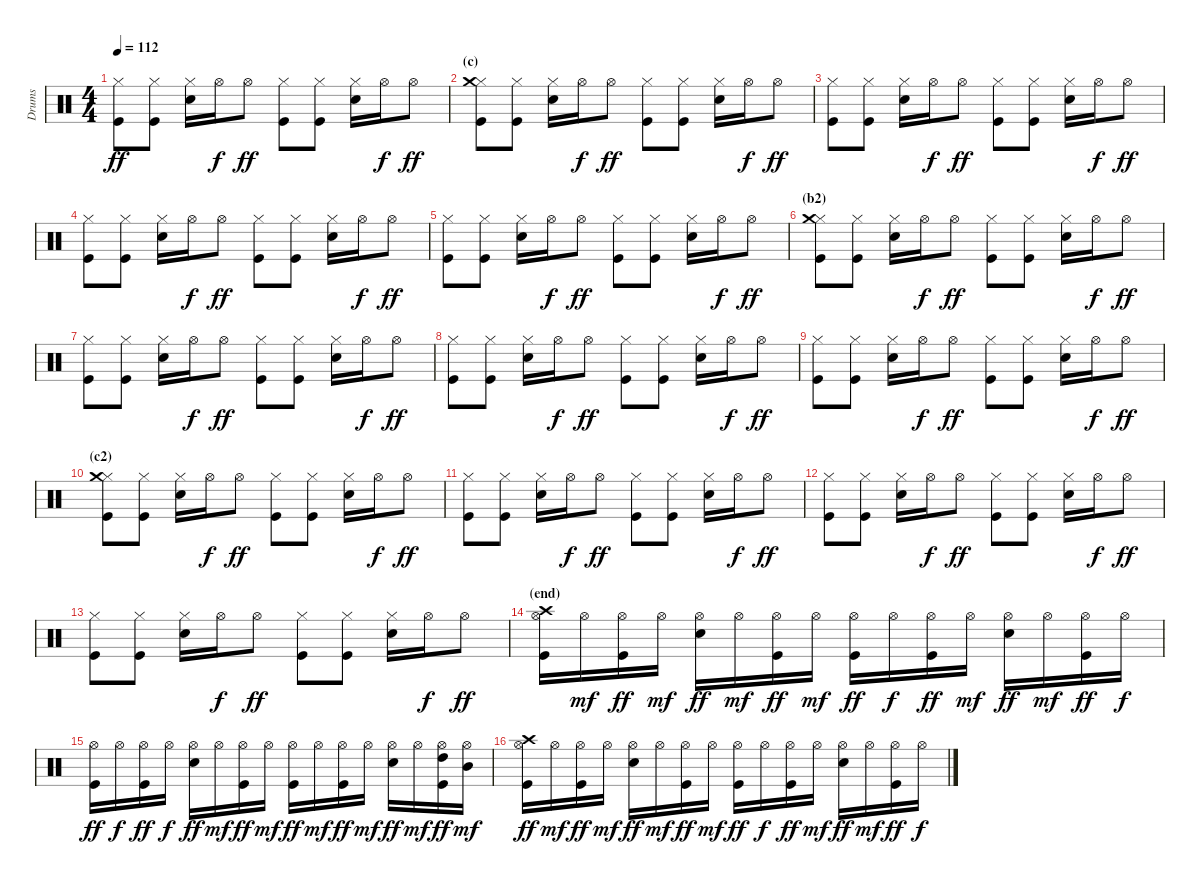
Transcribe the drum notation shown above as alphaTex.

\track ("Drums" "Drums") {instrument percussion}
\staff {score}
\articulation defaults
\ts (4 4)
\tempo 112
\clef neutral
\ks c
("Hi-Hat (closed)" "Kick (hit)").8{dy ff} ("Hi-Hat (closed)" "Kick (hit)").8 ("Hi-Hat (closed)" "Electric Snare (hit)").16 "Hi-Hat (open)".16{dy f} "Hi-Hat (open)".8{dy ff} ("Hi-Hat (closed)" "Kick (hit)").8 ("Hi-Hat (closed)" "Kick (hit)").8 ("Hi-Hat (closed)" "Electric Snare (hit)").16 "Hi-Hat (open)".16{dy f} "Hi-Hat (open)".8{dy ff} |
\section ("" "(c)")
("Hi-Hat (closed)" "Crash medium (hit)" "Kick (hit)").8 ("Hi-Hat (closed)" "Kick (hit)").8 ("Hi-Hat (closed)" "Electric Snare (hit)").16 "Hi-Hat (open)".16{dy f} "Hi-Hat (open)".8{dy ff} ("Hi-Hat (closed)" "Kick (hit)").8 ("Hi-Hat (closed)" "Kick (hit)").8 ("Hi-Hat (closed)" "Electric Snare (hit)").16 "Hi-Hat (open)".16{dy f} "Hi-Hat (open)".8{dy ff} |
("Hi-Hat (closed)" "Kick (hit)").8 ("Hi-Hat (closed)" "Kick (hit)").8 ("Hi-Hat (closed)" "Electric Snare (hit)").16 "Hi-Hat (open)".16{dy f} "Hi-Hat (open)".8{dy ff} ("Hi-Hat (closed)" "Kick (hit)").8 ("Hi-Hat (closed)" "Kick (hit)").8 ("Hi-Hat (closed)" "Electric Snare (hit)").16 "Hi-Hat (open)".16{dy f} "Hi-Hat (open)".8{dy ff} |
("Hi-Hat (closed)" "Kick (hit)").8 ("Hi-Hat (closed)" "Kick (hit)").8 ("Hi-Hat (closed)" "Electric Snare (hit)").16 "Hi-Hat (open)".16{dy f} "Hi-Hat (open)".8{dy ff} ("Hi-Hat (closed)" "Kick (hit)").8 ("Hi-Hat (closed)" "Kick (hit)").8 ("Hi-Hat (closed)" "Electric Snare (hit)").16 "Hi-Hat (open)".16{dy f} "Hi-Hat (open)".8{dy ff} |
("Hi-Hat (closed)" "Kick (hit)").8 ("Hi-Hat (closed)" "Kick (hit)").8 ("Hi-Hat (closed)" "Electric Snare (hit)").16 "Hi-Hat (open)".16{dy f} "Hi-Hat (open)".8{dy ff} ("Hi-Hat (closed)" "Kick (hit)").8 ("Hi-Hat (closed)" "Kick (hit)").8 ("Hi-Hat (closed)" "Electric Snare (hit)").16 "Hi-Hat (open)".16{dy f} "Hi-Hat (open)".8{dy ff} |
\section ("" "(b2)")
("Hi-Hat (closed)" "Crash medium (hit)" "Kick (hit)").8 ("Hi-Hat (closed)" "Kick (hit)").8 ("Hi-Hat (closed)" "Electric Snare (hit)").16 "Hi-Hat (open)".16{dy f} "Hi-Hat (open)".8{dy ff} ("Hi-Hat (closed)" "Kick (hit)").8 ("Hi-Hat (closed)" "Kick (hit)").8 ("Hi-Hat (closed)" "Electric Snare (hit)").16 "Hi-Hat (open)".16{dy f} "Hi-Hat (open)".8{dy ff} |
("Hi-Hat (closed)" "Kick (hit)").8 ("Hi-Hat (closed)" "Kick (hit)").8 ("Hi-Hat (closed)" "Electric Snare (hit)").16 "Hi-Hat (open)".16{dy f} "Hi-Hat (open)".8{dy ff} ("Hi-Hat (closed)" "Kick (hit)").8 ("Hi-Hat (closed)" "Kick (hit)").8 ("Hi-Hat (closed)" "Electric Snare (hit)").16 "Hi-Hat (open)".16{dy f} "Hi-Hat (open)".8{dy ff} |
("Hi-Hat (closed)" "Kick (hit)").8 ("Hi-Hat (closed)" "Kick (hit)").8 ("Hi-Hat (closed)" "Electric Snare (hit)").16 "Hi-Hat (open)".16{dy f} "Hi-Hat (open)".8{dy ff} ("Hi-Hat (closed)" "Kick (hit)").8 ("Hi-Hat (closed)" "Kick (hit)").8 ("Hi-Hat (closed)" "Electric Snare (hit)").16 "Hi-Hat (open)".16{dy f} "Hi-Hat (open)".8{dy ff} |
("Hi-Hat (closed)" "Kick (hit)").8 ("Hi-Hat (closed)" "Kick (hit)").8 ("Hi-Hat (closed)" "Electric Snare (hit)").16 "Hi-Hat (open)".16{dy f} "Hi-Hat (open)".8{dy ff} ("Hi-Hat (closed)" "Kick (hit)").8 ("Hi-Hat (closed)" "Kick (hit)").8 ("Hi-Hat (closed)" "Electric Snare (hit)").16 "Hi-Hat (open)".16{dy f} "Hi-Hat (open)".8{dy ff} |
\section ("" "(c2)")
("Hi-Hat (closed)" "Crash medium (hit)" "Kick (hit)").8 ("Hi-Hat (closed)" "Kick (hit)").8 ("Hi-Hat (closed)" "Electric Snare (hit)").16 "Hi-Hat (open)".16{dy f} "Hi-Hat (open)".8{dy ff} ("Hi-Hat (closed)" "Kick (hit)").8 ("Hi-Hat (closed)" "Kick (hit)").8 ("Hi-Hat (closed)" "Electric Snare (hit)").16 "Hi-Hat (open)".16{dy f} "Hi-Hat (open)".8{dy ff} |
("Hi-Hat (closed)" "Kick (hit)").8 ("Hi-Hat (closed)" "Kick (hit)").8 ("Hi-Hat (closed)" "Electric Snare (hit)").16 "Hi-Hat (open)".16{dy f} "Hi-Hat (open)".8{dy ff} ("Hi-Hat (closed)" "Kick (hit)").8 ("Hi-Hat (closed)" "Kick (hit)").8 ("Hi-Hat (closed)" "Electric Snare (hit)").16 "Hi-Hat (open)".16{dy f} "Hi-Hat (open)".8{dy ff} |
("Hi-Hat (closed)" "Kick (hit)").8 ("Hi-Hat (closed)" "Kick (hit)").8 ("Hi-Hat (closed)" "Electric Snare (hit)").16 "Hi-Hat (open)".16{dy f} "Hi-Hat (open)".8{dy ff} ("Hi-Hat (closed)" "Kick (hit)").8 ("Hi-Hat (closed)" "Kick (hit)").8 ("Hi-Hat (closed)" "Electric Snare (hit)").16 "Hi-Hat (open)".16{dy f} "Hi-Hat (open)".8{dy ff} |
("Hi-Hat (closed)" "Kick (hit)").8 ("Hi-Hat (closed)" "Kick (hit)").8 ("Hi-Hat (closed)" "Electric Snare (hit)").16 "Hi-Hat (open)".16{dy f} "Hi-Hat (open)".8{dy ff} ("Hi-Hat (closed)" "Kick (hit)").8 ("Hi-Hat (closed)" "Kick (hit)").8 ("Hi-Hat (closed)" "Electric Snare (hit)").16 "Hi-Hat (open)".16{dy f} "Hi-Hat (open)".8{dy ff} |
\section ("" "(end)")
("Hi-Hat (open)" "Crash high (hit)" "Kick (hit)").16 "Hi-Hat (open)".16{dy mf} ("Hi-Hat (open)" "Kick (hit)").16{dy ff} "Hi-Hat (open)".16{dy mf} ("Hi-Hat (open)" "Electric Snare (hit)").16{dy ff} "Hi-Hat (open)".16{dy mf} ("Hi-Hat (open)" "Kick (hit)").16{dy ff} "Hi-Hat (open)".16{dy mf} ("Hi-Hat (open)" "Kick (hit)").16{dy ff} "Hi-Hat (open)".16{dy f} ("Hi-Hat (open)" "Kick (hit)").16{dy ff} "Hi-Hat (open)".16{dy mf} ("Hi-Hat (open)" "Electric Snare (hit)").16{dy ff} "Hi-Hat (open)".16{dy mf} ("Hi-Hat (open)" "Kick (hit)").16{dy ff} "Hi-Hat (open)".16{dy f} |
("Hi-Hat (open)" "Kick (hit)").16{dy ff} "Hi-Hat (open)".16{dy f} ("Hi-Hat (open)" "Kick (hit)").16{dy ff} "Hi-Hat (open)".16{dy f} ("Hi-Hat (open)" "Electric Snare (hit)").16{dy ff} "Hi-Hat (open)".16{dy mf} ("Hi-Hat (open)" "Kick (hit)").16{dy ff} "Hi-Hat (open)".16{dy mf} ("Hi-Hat (open)" "Kick (hit)").16{dy ff} "Hi-Hat (open)".16{dy mf} ("Hi-Hat (open)" "Kick (hit)").16{dy ff} "Hi-Hat (open)".16{dy mf} ("Hi-Hat (open)" "Electric Snare (hit)").16{dy ff} "Hi-Hat (open)".16{dy mf} ("Hi-Hat (open)" "High Tom (hit)" "Kick (hit)").16{dy ff} ("Hi-Hat (open)" "Mid Tom (hit)").16{dy mf} |
("Hi-Hat (open)" "Crash high (hit)" "Kick (hit)").16{dy ff} "Hi-Hat (open)".16{dy mf} ("Hi-Hat (open)" "Kick (hit)").16{dy ff} "Hi-Hat (open)".16{dy mf} ("Hi-Hat (open)" "Electric Snare (hit)").16{dy ff} "Hi-Hat (open)".16{dy mf} ("Hi-Hat (open)" "Kick (hit)").16{dy ff} "Hi-Hat (open)".16{dy mf} ("Hi-Hat (open)" "Kick (hit)").16{dy ff} "Hi-Hat (open)".16{dy f} ("Hi-Hat (open)" "Kick (hit)").16{dy ff} "Hi-Hat (open)".16{dy mf} ("Hi-Hat (open)" "Electric Snare (hit)").16{dy ff} "Hi-Hat (open)".16{dy mf} ("Hi-Hat (open)" "Kick (hit)").16{dy ff} "Hi-Hat (open)".16{dy f}
